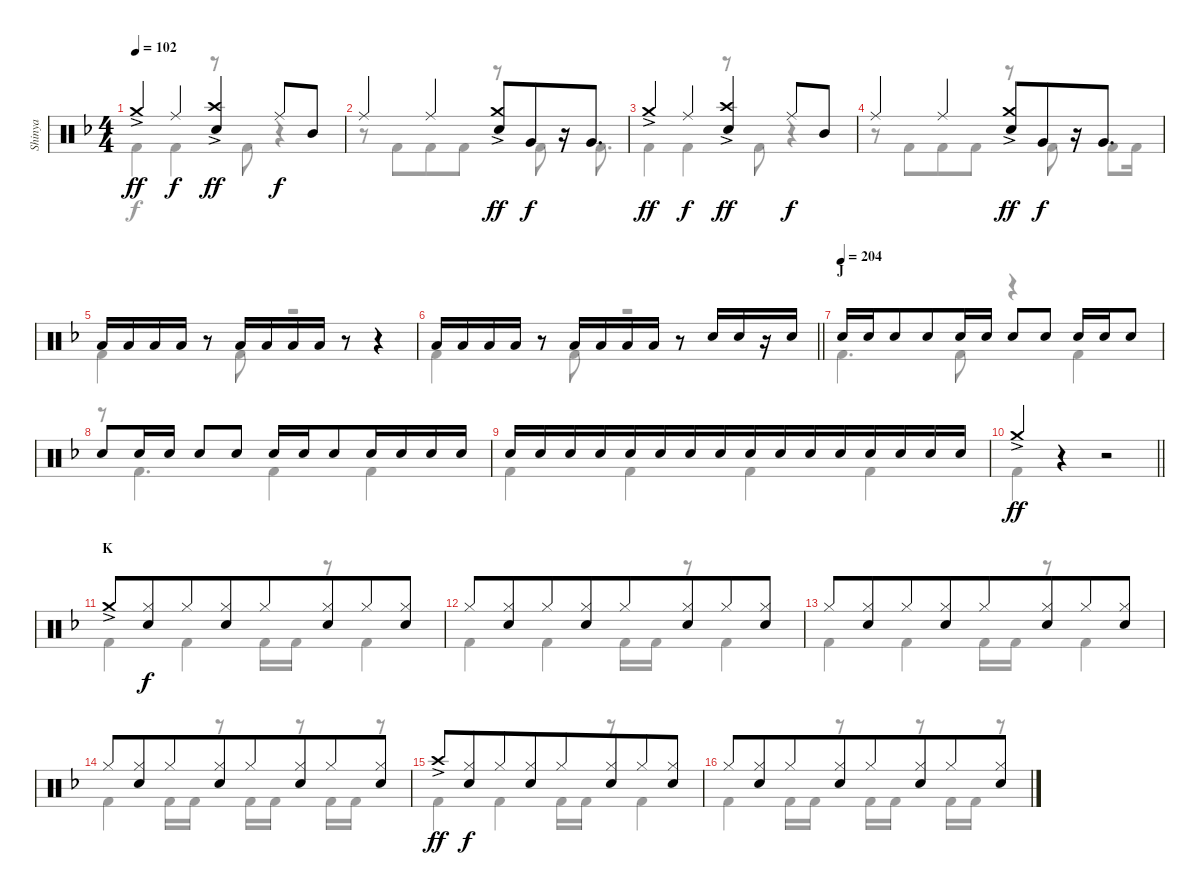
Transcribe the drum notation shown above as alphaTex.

\track ("Shinya" "Shinya") {mute instrument percussion}
\staff {score}
\articulation defaults
\voice
\ts (4 4)
\tempo 102
\clef neutral
\ks f "Crash medium (hit)"{ac}.4{dy ff} "Ride (middle)".4{dy f}
("Crash high (hit)"{ac} "Snare (hit) 2").4{dy ff beam merge} "Ride (middle)".8{dy f} "Mid Tom (hit)".8 |
"Ride (middle)".4{beam merge} "Ride (middle)".4{beam merge} ("Crash medium (hit)"{ac} "Snare (hit) 2").8{dy ff} "Very Low Tom (hit)".8{dy f beam merge} r.16 "Very Low Tom (hit)".8{d} |
"Crash medium (hit)"{ac}.4{dy ff} "Ride (middle)".4{dy f} ("Crash high (hit)"{ac} "Snare (hit) 2").4{dy ff beam merge} "Ride (middle)".8{dy f} "Mid Tom (hit)".8 |
"Ride (middle)".4{beam merge} "Ride (middle)".4{beam merge} ("Crash medium (hit)"{ac} "Snare (hit) 2").8{dy ff} "Very Low Tom (hit)".8{dy f beam merge} r.16 "Very Low Tom (hit)".8{d} |
"Low Floor Tom (hit)".16{beam merge} "Low Floor Tom (hit)".16 "Low Floor Tom (hit)".16 "Low Floor Tom (hit)".16 r.8{beam merge} "Low Floor Tom (hit)".16 "Low Floor Tom (hit)".16{beam merge} "Low Floor Tom (hit)".16{beam merge} "Low Floor Tom (hit)".16 r.8{beam merge} r.4 |
\barLineRight lightlight "Low Floor Tom (hit)".16{beam merge} "Low Floor Tom (hit)".16 "Low Floor Tom (hit)".16 "Low Floor Tom (hit)".16
r.8{beam merge} "Low Floor Tom (hit)".16 "Low Floor Tom (hit)".16{beam merge} "Low Floor Tom (hit)".16{beam merge} "Low Floor Tom (hit)".16 r.8{beam merge} "Snare (hit) 2".16 "Snare (hit) 2".16 r.16 "Snare (hit) 2".16 |
\section ("" "J")
\tempo (204)
"Snare (hit) 2".16 "Snare (hit) 2".16 "Snare (hit) 2".8{beam merge} "Snare (hit) 2".8 "Snare (hit) 2".16{beam merge} "Snare (hit) 2".16 "Snare (hit) 2".8{beam merge} "Snare (hit) 2".8 "Snare (hit) 2".16 "Snare (hit) 2".16 "Snare (hit) 2".8 |
"Snare (hit) 2".8 "Snare (hit) 2".16{beam merge} "Snare (hit) 2".16 "Snare (hit) 2".8{beam merge} "Snare (hit) 2".8 "Snare (hit) 2".16 "Snare (hit) 2".16 "Snare (hit) 2".8{beam merge} "Snare (hit) 2".16 "Snare (hit) 2".16{beam merge} "Snare (hit) 2".16{beam merge} "Snare (hit) 2".16 |
"Snare (hit) 2".16 "Snare (hit) 2".16{beam merge} "Snare (hit) 2".16{beam merge} "Snare (hit) 2".16{beam merge} "Snare (hit) 2".16 "Snare (hit) 2".16{beam merge} "Snare (hit) 2".16{beam merge} "Snare (hit) 2".16{beam merge} "Snare (hit) 2".16 "Snare (hit) 2".16{beam merge} "Snare (hit) 2".16{beam merge} "Snare (hit) 2".16{beam merge} "Snare (hit) 2".16 "Snare (hit) 2".16{beam merge} "Snare (hit) 2".16{beam merge} "Snare (hit) 2".16 |
\barLineRight lightlight "Crash medium (hit)"{ac}.4{dy ff}
r.4 r.2 |
\section ("" "K")
"Crash medium (hit)"{ac}.8 ("Hi-Hat (closed)" "Snare (hit) 2").8{dy f beam merge} "Hi-Hat (closed)".8{beam merge} ("Hi-Hat (closed)" "Snare (hit) 2").8{beam merge} "Hi-Hat (closed)".8 ("Hi-Hat (closed)" "Snare (hit) 2").8{beam merge} "Hi-Hat (closed)".8 ("Hi-Hat (closed)" "Snare (hit) 2").8 |
"Hi-Hat (closed)".8 ("Hi-Hat (closed)" "Snare (hit) 2").8{beam merge} "Hi-Hat (closed)".8 ("Hi-Hat (closed)" "Snare (hit) 2").8{beam merge} "Hi-Hat (closed)".8 ("Hi-Hat (closed)" "Snare (hit) 2").8{beam merge} "Hi-Hat (closed)".8 ("Hi-Hat (closed)" "Snare (hit) 2").8 |
"Hi-Hat (closed)".8 ("Hi-Hat (closed)" "Snare (hit) 2").8{beam merge} "Hi-Hat (closed)".8 ("Hi-Hat (closed)" "Snare (hit) 2").8{beam merge} "Hi-Hat (closed)".8 ("Hi-Hat (closed)" "Snare (hit) 2").8{beam merge} "Hi-Hat (closed)".8 ("Hi-Hat (closed)" "Snare (hit) 2").8 |
"Hi-Hat (closed)".8 ("Hi-Hat (closed)" "Snare (hit) 2").8{beam merge} "Hi-Hat (closed)".8 ("Hi-Hat (closed)" "Snare (hit) 2").8{beam merge} "Hi-Hat (closed)".8 ("Hi-Hat (closed)" "Snare (hit) 2").8{beam merge} "Hi-Hat (closed)".8 ("Hi-Hat (closed)" "Snare (hit) 2").8 |
"Crash high (hit)"{ac}.8{dy ff} ("Hi-Hat (closed)" "Snare (hit) 2").8{dy f beam merge} "Hi-Hat (closed)".8{beam merge} ("Hi-Hat (closed)" "Snare (hit) 2").8{beam merge} "Hi-Hat (closed)".8 ("Hi-Hat (closed)" "Snare (hit) 2").8{beam merge} "Hi-Hat (closed)".8 ("Hi-Hat (closed)" "Snare (hit) 2").8 |
"Hi-Hat (closed)".8 ("Hi-Hat (closed)" "Snare (hit) 2").8{beam merge} "Hi-Hat (closed)".8 ("Hi-Hat (closed)" "Snare (hit) 2").8{beam merge} "Hi-Hat (closed)".8 ("Hi-Hat (closed)" "Snare (hit) 2").8{beam merge} "Hi-Hat (closed)".8 ("Hi-Hat (closed)" "Snare (hit) 2").8
\voice
\clef neutral
\ottava regular
\simile none
\ks f "Kick (hit) 2".4{dy f} "Kick (hit) 2".4
r.8 "Kick (hit) 2".8 r.4 |
r.8 "Kick (hit) 2".8{beam merge} "Kick (hit) 2".8 "Kick (hit) 2".8 r.8 "Kick (hit) 2".8 r.16 "Kick (hit) 2".8{d} |
"Kick (hit) 2".4 "Kick (hit) 2".4 r.8 "Kick (hit) 2".8 r.4 |
r.8 "Kick (hit) 2".8{beam merge} "Kick (hit) 2".8 "Kick (hit) 2".8 r.8 "Kick (hit) 2".8 r.16 "Kick (hit) 2".8 "Kick (hit) 2".16 |
"Kick (hit) 2".4 r.8 "Kick (hit) 2".8 r.2 |
\barLineRight lightlight "Kick (hit) 2".4
r.8 "Kick (hit) 2".8 r.2 |
"Kick (hit) 2".4{d} "Kick (hit) 2".8 r.4 "Kick (hit) 2".4 |
r.8 "Kick (hit) 2".4{d} "Kick (hit) 2".4 "Kick (hit) 2".4 |
"Kick (hit) 2".4 "Kick (hit) 2".4 "Kick (hit) 2".4 "Kick (hit) 2".4 |
\barLineRight lightlight "Kick (hit) 2".4
r.4 r.2 |
"Kick (hit) 2".4 "Kick (hit) 2".4 "Kick (hit) 2".16 "Kick (hit) 2".16 r.8 "Kick (hit) 2".4 |
"Kick (hit) 2".4 "Kick (hit) 2".4 "Kick (hit) 2".16 "Kick (hit) 2".16 r.8 "Kick (hit) 2".4 |
"Kick (hit) 2".4 "Kick (hit) 2".4 "Kick (hit) 2".16 "Kick (hit) 2".16 r.8 "Kick (hit) 2".4 |
"Kick (hit) 2".4 "Kick (hit) 2".16 "Kick (hit) 2".16 r.8 "Kick (hit) 2".16 "Kick (hit) 2".16 r.8 "Kick (hit) 2".16 "Kick (hit) 2".16 r.8 |
"Kick (hit) 2".4 "Kick (hit) 2".4 "Kick (hit) 2".16 "Kick (hit) 2".16 r.8 "Kick (hit) 2".4 |
"Kick (hit) 2".4 "Kick (hit) 2".16 "Kick (hit) 2".16 r.8 "Kick (hit) 2".16 "Kick (hit) 2".16 r.8 "Kick (hit) 2".16 "Kick (hit) 2".16 r.8
